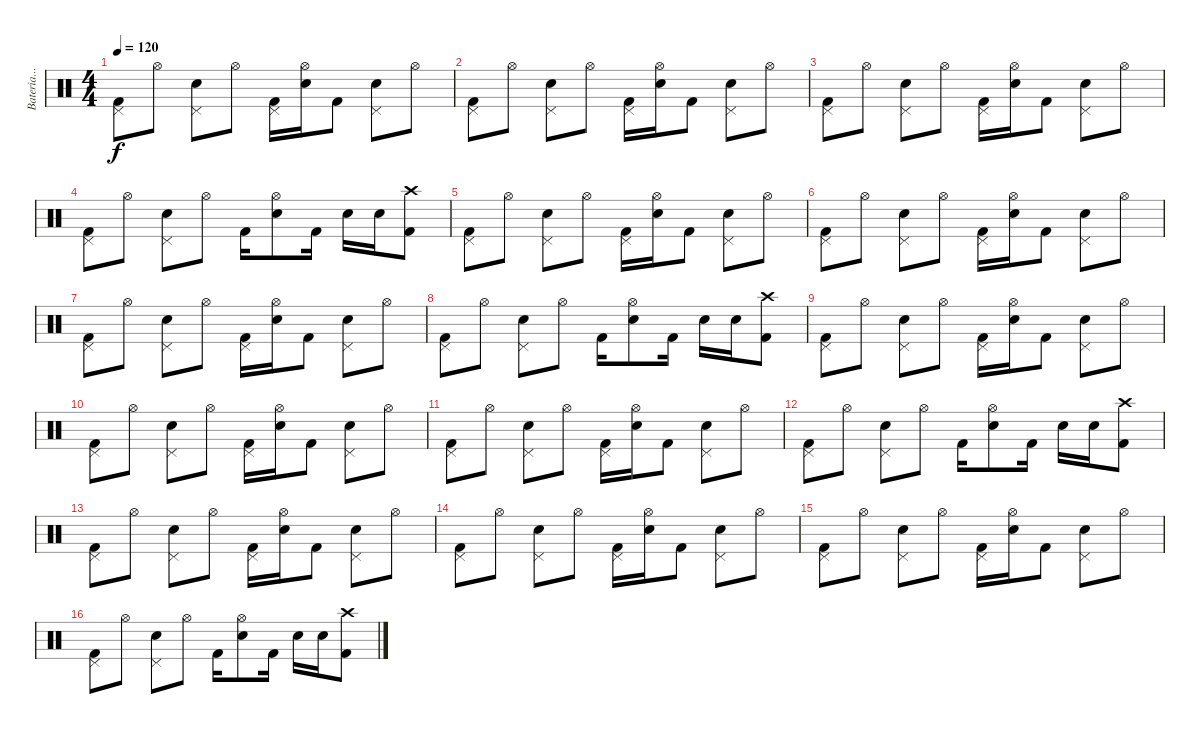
\track ("Bateria...xD" "Bateria...") {instrument percussion}
\staff {score}
\articulation defaults
\ts (4 4)
\tempo 120
\clef neutral
\ks c
("Pedal Hi-Hat (hit)" "Kick (hit) 2").8{dy f} "Hi-Hat (open)".8 ("Pedal Hi-Hat (hit)" "Electric Snare (hit)").8 "Hi-Hat (open)".8 ("Pedal Hi-Hat (hit)" "Kick (hit) 2").16 ("Hi-Hat (open)" "Electric Snare (hit)").16 "Kick (hit) 2".8 ("Pedal Hi-Hat (hit)" "Electric Snare (hit)").8 "Hi-Hat (open)".8 |
("Pedal Hi-Hat (hit)" "Kick (hit) 2").8 "Hi-Hat (open)".8 ("Pedal Hi-Hat (hit)" "Electric Snare (hit)").8 "Hi-Hat (open)".8 ("Pedal Hi-Hat (hit)" "Kick (hit) 2").16 ("Hi-Hat (open)" "Electric Snare (hit)").16 "Kick (hit) 2".8 ("Pedal Hi-Hat (hit)" "Electric Snare (hit)").8 "Hi-Hat (open)".8 |
("Pedal Hi-Hat (hit)" "Kick (hit) 2").8 "Hi-Hat (open)".8 ("Pedal Hi-Hat (hit)" "Electric Snare (hit)").8 "Hi-Hat (open)".8 ("Pedal Hi-Hat (hit)" "Kick (hit) 2").16 ("Hi-Hat (open)" "Electric Snare (hit)").16 "Kick (hit) 2".8 ("Pedal Hi-Hat (hit)" "Electric Snare (hit)").8 "Hi-Hat (open)".8 |
("Pedal Hi-Hat (hit)" "Kick (hit) 2").8 "Hi-Hat (open)".8 ("Pedal Hi-Hat (hit)" "Electric Snare (hit)").8 "Hi-Hat (open)".8 "Kick (hit) 2".16 ("Hi-Hat (open)" "Electric Snare (hit)").8 "Kick (hit) 2".16 "Electric Snare (hit)".16 "Electric Snare (hit)".16 ("Crash high (hit)" "Kick (hit) 2").8 |
("Pedal Hi-Hat (hit)" "Kick (hit) 2").8 "Hi-Hat (open)".8 ("Pedal Hi-Hat (hit)" "Electric Snare (hit)").8 "Hi-Hat (open)".8 ("Pedal Hi-Hat (hit)" "Kick (hit) 2").16 ("Hi-Hat (open)" "Electric Snare (hit)").16 "Kick (hit) 2".8 ("Pedal Hi-Hat (hit)" "Electric Snare (hit)").8 "Hi-Hat (open)".8 |
("Pedal Hi-Hat (hit)" "Kick (hit) 2").8 "Hi-Hat (open)".8 ("Pedal Hi-Hat (hit)" "Electric Snare (hit)").8 "Hi-Hat (open)".8 ("Pedal Hi-Hat (hit)" "Kick (hit) 2").16 ("Hi-Hat (open)" "Electric Snare (hit)").16 "Kick (hit) 2".8 ("Pedal Hi-Hat (hit)" "Electric Snare (hit)").8 "Hi-Hat (open)".8 |
("Pedal Hi-Hat (hit)" "Kick (hit) 2").8 "Hi-Hat (open)".8 ("Pedal Hi-Hat (hit)" "Electric Snare (hit)").8 "Hi-Hat (open)".8 ("Pedal Hi-Hat (hit)" "Kick (hit) 2").16 ("Hi-Hat (open)" "Electric Snare (hit)").16 "Kick (hit) 2".8 ("Pedal Hi-Hat (hit)" "Electric Snare (hit)").8 "Hi-Hat (open)".8 |
("Pedal Hi-Hat (hit)" "Kick (hit) 2").8 "Hi-Hat (open)".8 ("Pedal Hi-Hat (hit)" "Electric Snare (hit)").8 "Hi-Hat (open)".8 "Kick (hit) 2".16 ("Hi-Hat (open)" "Electric Snare (hit)").8 "Kick (hit) 2".16 "Electric Snare (hit)".16 "Electric Snare (hit)".16 ("Crash high (hit)" "Kick (hit) 2").8 |
("Pedal Hi-Hat (hit)" "Kick (hit) 2").8 "Hi-Hat (open)".8 ("Pedal Hi-Hat (hit)" "Electric Snare (hit)").8 "Hi-Hat (open)".8 ("Pedal Hi-Hat (hit)" "Kick (hit) 2").16 ("Hi-Hat (open)" "Electric Snare (hit)").16 "Kick (hit) 2".8 ("Pedal Hi-Hat (hit)" "Electric Snare (hit)").8 "Hi-Hat (open)".8 |
("Pedal Hi-Hat (hit)" "Kick (hit) 2").8 "Hi-Hat (open)".8 ("Pedal Hi-Hat (hit)" "Electric Snare (hit)").8 "Hi-Hat (open)".8 ("Pedal Hi-Hat (hit)" "Kick (hit) 2").16 ("Hi-Hat (open)" "Electric Snare (hit)").16 "Kick (hit) 2".8 ("Pedal Hi-Hat (hit)" "Electric Snare (hit)").8 "Hi-Hat (open)".8 |
("Pedal Hi-Hat (hit)" "Kick (hit) 2").8 "Hi-Hat (open)".8 ("Pedal Hi-Hat (hit)" "Electric Snare (hit)").8 "Hi-Hat (open)".8 ("Pedal Hi-Hat (hit)" "Kick (hit) 2").16 ("Hi-Hat (open)" "Electric Snare (hit)").16 "Kick (hit) 2".8 ("Pedal Hi-Hat (hit)" "Electric Snare (hit)").8 "Hi-Hat (open)".8 |
("Pedal Hi-Hat (hit)" "Kick (hit) 2").8 "Hi-Hat (open)".8 ("Pedal Hi-Hat (hit)" "Electric Snare (hit)").8 "Hi-Hat (open)".8 "Kick (hit) 2".16 ("Hi-Hat (open)" "Electric Snare (hit)").8 "Kick (hit) 2".16 "Electric Snare (hit)".16 "Electric Snare (hit)".16 ("Crash high (hit)" "Kick (hit) 2").8 |
("Pedal Hi-Hat (hit)" "Kick (hit) 2").8 "Hi-Hat (open)".8 ("Pedal Hi-Hat (hit)" "Electric Snare (hit)").8 "Hi-Hat (open)".8 ("Pedal Hi-Hat (hit)" "Kick (hit) 2").16 ("Hi-Hat (open)" "Electric Snare (hit)").16 "Kick (hit) 2".8 ("Pedal Hi-Hat (hit)" "Electric Snare (hit)").8 "Hi-Hat (open)".8 |
("Pedal Hi-Hat (hit)" "Kick (hit) 2").8 "Hi-Hat (open)".8 ("Pedal Hi-Hat (hit)" "Electric Snare (hit)").8 "Hi-Hat (open)".8 ("Pedal Hi-Hat (hit)" "Kick (hit) 2").16 ("Hi-Hat (open)" "Electric Snare (hit)").16 "Kick (hit) 2".8 ("Pedal Hi-Hat (hit)" "Electric Snare (hit)").8 "Hi-Hat (open)".8 |
("Pedal Hi-Hat (hit)" "Kick (hit) 2").8 "Hi-Hat (open)".8 ("Pedal Hi-Hat (hit)" "Electric Snare (hit)").8 "Hi-Hat (open)".8 ("Pedal Hi-Hat (hit)" "Kick (hit) 2").16 ("Hi-Hat (open)" "Electric Snare (hit)").16 "Kick (hit) 2".8 ("Pedal Hi-Hat (hit)" "Electric Snare (hit)").8 "Hi-Hat (open)".8 |
("Pedal Hi-Hat (hit)" "Kick (hit) 2").8 "Hi-Hat (open)".8 ("Pedal Hi-Hat (hit)" "Electric Snare (hit)").8 "Hi-Hat (open)".8 "Kick (hit) 2".16 ("Hi-Hat (open)" "Electric Snare (hit)").8 "Kick (hit) 2".16 "Electric Snare (hit)".16 "Electric Snare (hit)".16 ("Crash high (hit)" "Kick (hit) 2").8
